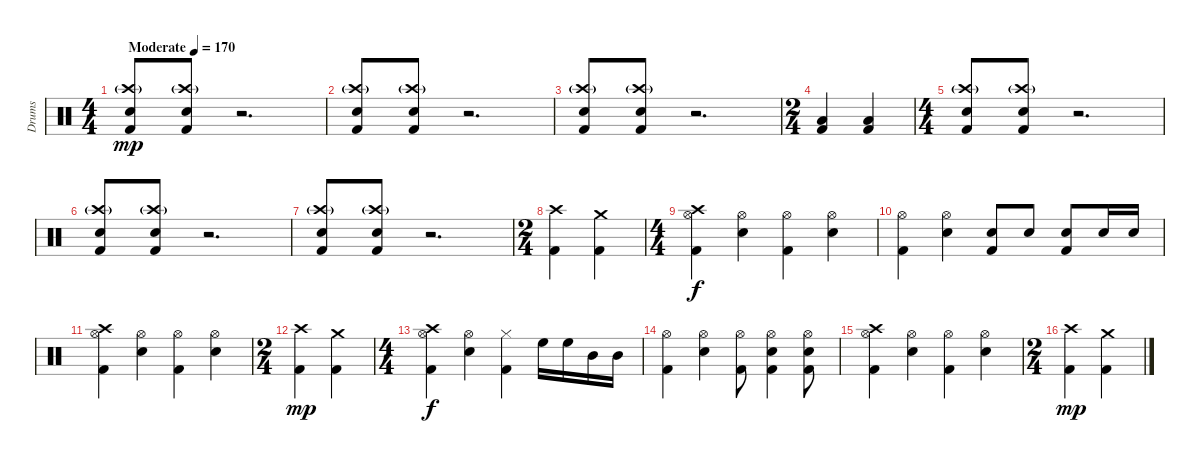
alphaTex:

\track ("Drums" "Drums") {instrument percussion}
\staff {score}
\articulation defaults
\ts (4 4)
\tempo (170 "Moderate")
\clef neutral
\ks c
("Snare (hit) 2" "Crash high (hit)"{g} "Kick (hit) 2").8{dy mp} ("Snare (hit) 2" "Crash high (hit)"{g} "Kick (hit) 2").8 r.2{d} |
("Snare (hit) 2" "Crash high (hit)"{g} "Kick (hit) 2").8 ("Snare (hit) 2" "Crash high (hit)"{g} "Kick (hit) 2").8 r.2{d} |
("Snare (hit) 2" "Crash high (hit)"{g} "Kick (hit) 2").8 ("Snare (hit) 2" "Crash high (hit)"{g} "Kick (hit) 2").8 r.2{d} |
\ts (2 4)
("Low Tom (hit)" "Kick (hit) 2").4 ("Low Tom (hit)" "Kick (hit) 2").4 |
\ts (4 4)
("Snare (hit) 2" "Crash high (hit)"{g} "Kick (hit) 2").8 ("Snare (hit) 2" "Crash high (hit)"{g} "Kick (hit) 2").8 r.2{d} |
("Snare (hit) 2" "Crash high (hit)"{g} "Kick (hit) 2").8 ("Snare (hit) 2" "Crash high (hit)"{g} "Kick (hit) 2").8 r.2{d} |
("Snare (hit) 2" "Crash high (hit)"{g} "Kick (hit) 2").8 ("Snare (hit) 2" "Crash high (hit)"{g} "Kick (hit) 2").8 r.2{d} |
\ts (2 4)
("Crash high (hit)" "Kick (hit) 2").4 ("Crash medium (hit)" "Kick (hit) 2").4 |
\ts (4 4)
("Crash high (hit)" "Hi-Hat (open)" "Kick (hit) 2").4{dy f} ("Snare (hit) 2" "Hi-Hat (open)").4 ("Hi-Hat (open)" "Kick (hit) 2").4 ("Snare (hit) 2" "Hi-Hat (open)").4 |
("Hi-Hat (open)" "Kick (hit) 2").4 ("Snare (hit) 2" "Hi-Hat (open)").4 ("Snare (hit) 2" "Kick (hit) 2").8 "Snare (hit) 2".8 ("Snare (hit) 2" "Kick (hit) 2").8 "Snare (hit) 2".16 "Snare (hit) 2".16 |
("Crash high (hit)" "Hi-Hat (open)" "Kick (hit) 2").4 ("Snare (hit) 2" "Hi-Hat (open)").4 ("Hi-Hat (open)" "Kick (hit) 2").4 ("Snare (hit) 2" "Hi-Hat (open)").4 |
\ts (2 4)
("Crash high (hit)" "Kick (hit) 2").4{dy mp} ("Crash medium (hit)" "Kick (hit) 2").4 |
\ts (4 4)
("Crash high (hit)" "Hi-Hat (open)" "Kick (hit) 2").4{dy f} ("Snare (hit) 2" "Hi-Hat (open)").4 ("Hi-Hat (closed)" "Kick (hit) 2").4 "High Floor Tom (hit)".16 "High Floor Tom (hit)".16 "Mid Tom (hit)".16 "Mid Tom (hit)".16 |
("Hi-Hat (open)" "Kick (hit) 2").4 ("Snare (hit) 2" "Hi-Hat (open)").4 ("Hi-Hat (open)" "Kick (hit) 2").8 ("Snare (hit) 2" "Hi-Hat (open)" "Kick (hit) 2").4 ("Snare (hit) 2" "Hi-Hat (open)" "Kick (hit) 2").8 |
("Crash high (hit)" "Hi-Hat (open)" "Kick (hit) 2").4 ("Snare (hit) 2" "Hi-Hat (open)").4 ("Hi-Hat (open)" "Kick (hit) 2").4 ("Snare (hit) 2" "Hi-Hat (open)").4 |
\ts (2 4)
("Crash high (hit)" "Kick (hit) 2").4{dy mp} ("Crash medium (hit)" "Kick (hit) 2").4
